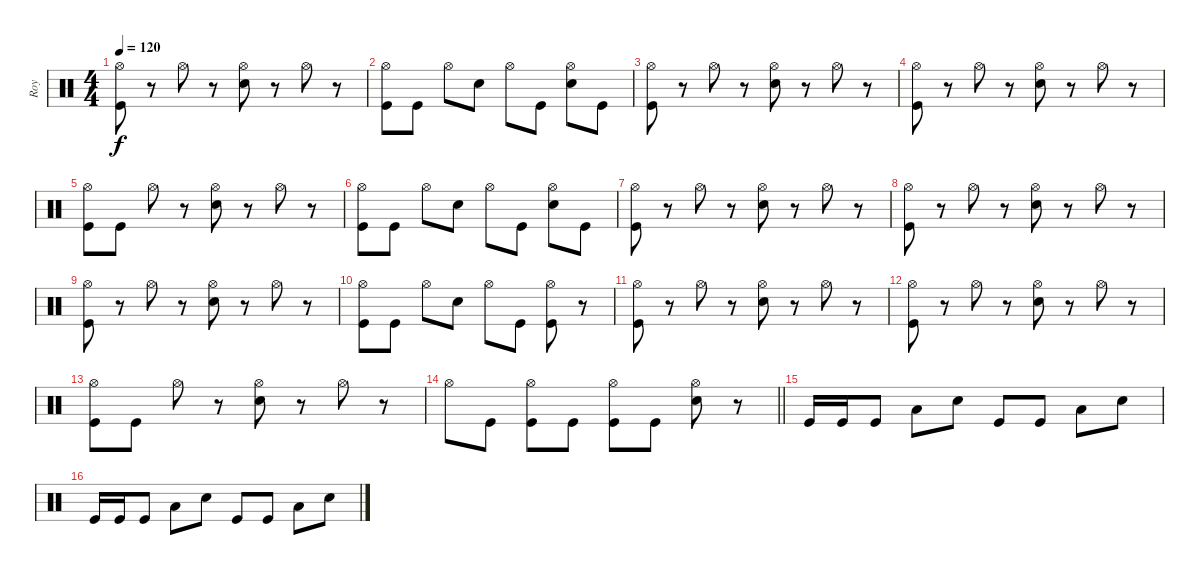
\track ("Roy" "Roy") {instrument percussion}
\staff {score}
\articulation defaults
\ts (4 4)
\tempo 120
\clef neutral
\ks c
("Hi-Hat (open)" "Kick (hit)").8{dy f} r.8 "Hi-Hat (open)".8 r.8 ("Hi-Hat (open)" "Electric Snare (hit)").8 r.8 "Hi-Hat (open)".8 r.8 |
("Hi-Hat (open)" "Kick (hit)").8 "Kick (hit)".8 "Hi-Hat (open)".8 "Electric Snare (hit)".8 "Hi-Hat (open)".8 "Kick (hit)".8 ("Hi-Hat (open)" "Electric Snare (hit)").8 "Kick (hit)".8 |
("Hi-Hat (open)" "Kick (hit)").8 r.8 "Hi-Hat (open)".8 r.8 ("Hi-Hat (open)" "Electric Snare (hit)").8 r.8 "Hi-Hat (open)".8 r.8 |
("Hi-Hat (open)" "Kick (hit)").8 r.8 "Hi-Hat (open)".8 r.8 ("Hi-Hat (open)" "Electric Snare (hit)").8 r.8 "Hi-Hat (open)".8 r.8 |
("Hi-Hat (open)" "Kick (hit)").8 "Kick (hit)".8 "Hi-Hat (open)".8 r.8 ("Hi-Hat (open)" "Electric Snare (hit)").8 r.8 "Hi-Hat (open)".8 r.8 |
("Hi-Hat (open)" "Kick (hit)").8 "Kick (hit)".8 "Hi-Hat (open)".8 "Electric Snare (hit)".8 "Hi-Hat (open)".8 "Kick (hit)".8 ("Hi-Hat (open)" "Electric Snare (hit)").8 "Kick (hit)".8 |
("Hi-Hat (open)" "Kick (hit)").8 r.8 "Hi-Hat (open)".8 r.8 ("Hi-Hat (open)" "Electric Snare (hit)").8 r.8 "Hi-Hat (open)".8 r.8 |
("Hi-Hat (open)" "Kick (hit)").8 r.8 "Hi-Hat (open)".8 r.8 ("Hi-Hat (open)" "Electric Snare (hit)").8 r.8 "Hi-Hat (open)".8 r.8 |
("Hi-Hat (open)" "Kick (hit)").8 r.8 "Hi-Hat (open)".8 r.8 ("Hi-Hat (open)" "Electric Snare (hit)").8 r.8 "Hi-Hat (open)".8 r.8 |
("Hi-Hat (open)" "Kick (hit)").8 "Kick (hit)".8 "Hi-Hat (open)".8 "Electric Snare (hit)".8 "Hi-Hat (open)".8 "Kick (hit)".8 ("Hi-Hat (open)" "Kick (hit)").8 r.8 |
("Hi-Hat (open)" "Kick (hit)").8 r.8 "Hi-Hat (open)".8 r.8 ("Hi-Hat (open)" "Electric Snare (hit)").8 r.8 "Hi-Hat (open)".8 r.8 |
("Hi-Hat (open)" "Kick (hit)").8 r.8 "Hi-Hat (open)".8 r.8 ("Hi-Hat (open)" "Electric Snare (hit)").8 r.8 "Hi-Hat (open)".8 r.8 |
("Hi-Hat (open)" "Kick (hit)").8 "Kick (hit)".8 "Hi-Hat (open)".8 r.8 ("Hi-Hat (open)" "Electric Snare (hit)").8 r.8 "Hi-Hat (open)".8 r.8 |
\barLineRight lightlight "Hi-Hat (open)".8 "Kick (hit)".8
("Hi-Hat (open)" "Kick (hit)").8 "Kick (hit)".8 ("Hi-Hat (open)" "Kick (hit)").8 "Kick (hit)".8 ("Hi-Hat (open)" "Electric Snare (hit)").8 r.8 |
\section ("" "")
"Kick (hit)".16 "Kick (hit)".16 "Kick (hit)".8 "Low Tom (hit)".8 "Metronome (bell)".8 "Kick (hit)".8 "Kick (hit)".8 "Low Tom (hit)".8 "Metronome (bell)".8 |
"Kick (hit)".16 "Kick (hit)".16 "Kick (hit)".8 "Low Tom (hit)".8 "Metronome (bell)".8 "Kick (hit)".8 "Kick (hit)".8 "Low Tom (hit)".8 "Metronome (bell)".8
